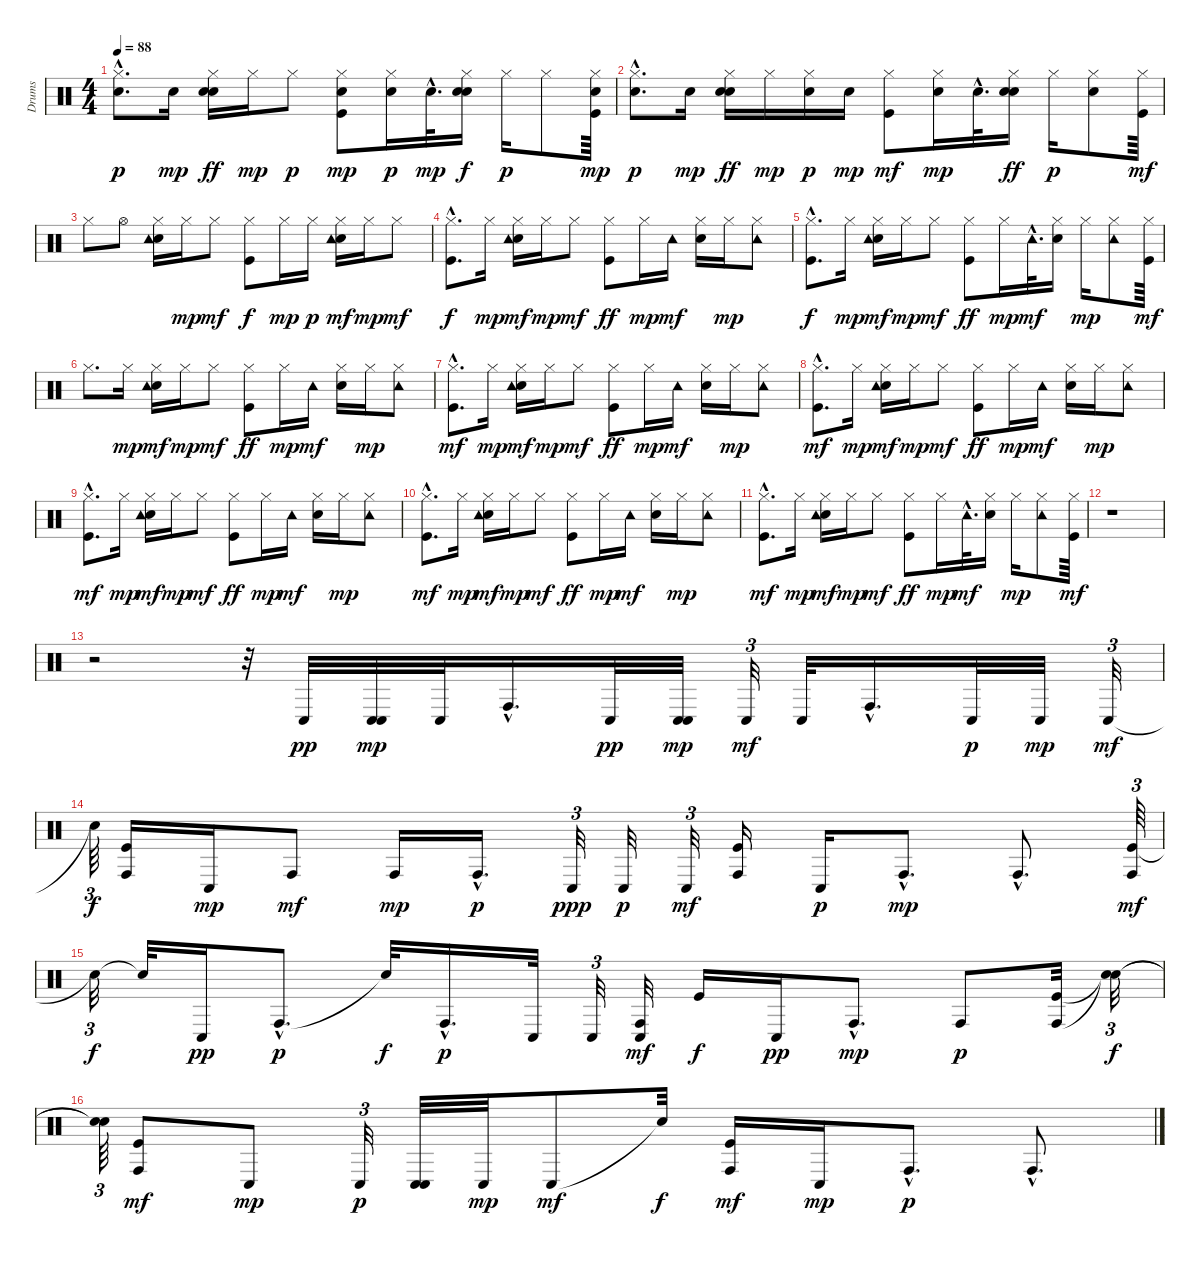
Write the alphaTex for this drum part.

\track ("Drums" "Drums") {instrument percussion}
\staff {score}
\articulation defaults
\ts (4 4)
\tempo 88
\clef neutral
\ks c
("Hi-Hat (closed)" "Snare (hit) 2"{hac}).8{d dy p} "Snare (hit) 2".16{dy mp} ("Electric Snare (hit)" "Hi-Hat (closed)" "Hand Clap (hit)").16{dy ff} "Hi-Hat (closed)".16{dy mp} "Hi-Hat (closed)".8{dy p} ("Kick (hit)" "Hi-Hat (closed)" "Snare (hit) 2").8{dy mp} ("Hi-Hat (closed)" "Snare (hit) 2").16{dy p} "Snare (hit) 2"{hac}.32{d dy mp} ("Electric Snare (hit)" "Hi-Hat (closed)" "Hand Clap (hit)").16{dy f} "Hi-Hat (closed)".16{dy p} "Hi-Hat (closed)".8 ("Kick (hit)" "Hi-Hat (closed)" "Snare (hit) 2").64{dy mp} |
("Hi-Hat (closed)" "Snare (hit) 2"{hac}).8{d dy p} "Snare (hit) 2".16{dy mp} ("Hand Clap (hit)" "Electric Snare (hit)" "Hi-Hat (closed)").16{dy ff} "Hi-Hat (closed)".16{dy mp} ("Hi-Hat (closed)" "Snare (hit) 2").16{dy p} "Snare (hit) 2".16{dy mp} ("Kick (hit)" "Hi-Hat (closed)").8{dy mf} ("Hi-Hat (closed)" "Snare (hit) 2").16{dy mp} "Snare (hit) 2"{hac}.32{d} ("Hand Clap (hit)" "Electric Snare (hit)" "Hi-Hat (closed)").16{dy ff} "Hi-Hat (closed)".16{dy p} ("Electric Snare (hit)" "Hi-Hat (closed)").8 ("Kick (hit)" "Hi-Hat (closed)").64{dy mf} |
"Hi-Hat (closed)".8 "Hi-Hat (open)".8 ("Electric Snare (hit)" "Hi-Hat (closed)" "Tambourine (hit)").16 "Hi-Hat (closed)".16{dy mp} "Hi-Hat (closed)".8{dy mf} ("Kick (hit)" "Hi-Hat (closed)").8{dy f} "Hi-Hat (closed)".16{dy mp} "Hi-Hat (closed)".16{dy p} ("Electric Snare (hit)" "Hi-Hat (closed)" "Tambourine (hit)").16{dy mf} "Hi-Hat (closed)".16{dy mp} "Hi-Hat (closed)".8{dy mf} |
("Kick (hit)"{hac} "Hi-Hat (closed)"{hac}).8{d dy f} "Hi-Hat (closed)".16{dy mp} ("Electric Snare (hit)" "Hi-Hat (closed)" "Tambourine (hit)").16{dy mf} "Hi-Hat (closed)".16{dy mp} "Hi-Hat (closed)".8{dy mf} ("Kick (hit)" "Hi-Hat (closed)").8{dy ff} "Hi-Hat (closed)".16{dy mp} "Tambourine (hit)".16{dy mf} ("Electric Snare (hit)" "Hi-Hat (closed)").16 "Hi-Hat (closed)".16{dy mp} ("Hi-Hat (closed)" "Tambourine (hit)").8 |
("Kick (hit)" "Hi-Hat (closed)"{hac}).8{d dy f} "Hi-Hat (closed)".16{dy mp} ("Electric Snare (hit)" "Hi-Hat (closed)" "Tambourine (hit)").16{dy mf} "Hi-Hat (closed)".16{dy mp} "Hi-Hat (closed)".8{dy mf} ("Kick (hit)" "Hi-Hat (closed)").8{dy ff} "Hi-Hat (closed)".16{dy mp} "Tambourine (hit)"{hac}.32{d dy mf} ("Electric Snare (hit)" "Hi-Hat (closed)").16 "Hi-Hat (closed)".16{dy mp} ("Hi-Hat (closed)" "Tambourine (hit)").8 ("Kick (hit)" "Hi-Hat (closed)").64{dy mf} |
"Hi-Hat (closed)".8{d} "Hi-Hat (closed)".16{dy mp} ("Electric Snare (hit)" "Hi-Hat (closed)" "Tambourine (hit)").16{dy mf} "Hi-Hat (closed)".16{dy mp} "Hi-Hat (closed)".8{dy mf} ("Kick (hit)" "Hi-Hat (closed)").8{dy ff} "Hi-Hat (closed)".16{dy mp} "Tambourine (hit)".16{dy mf} ("Electric Snare (hit)" "Hi-Hat (closed)").16 "Hi-Hat (closed)".16{dy mp} ("Hi-Hat (closed)" "Tambourine (hit)").8 |
("Hi-Hat (closed)" "Kick (hit)"{hac}).8{d dy mf} "Hi-Hat (closed)".16{dy mp} ("Electric Snare (hit)" "Hi-Hat (closed)" "Tambourine (hit)").16{dy mf} "Hi-Hat (closed)".16{dy mp} "Hi-Hat (closed)".8{dy mf} ("Kick (hit)" "Hi-Hat (closed)").8{dy ff} "Hi-Hat (closed)".16{dy mp} "Tambourine (hit)".16{dy mf} ("Electric Snare (hit)" "Hi-Hat (closed)").16 "Hi-Hat (closed)".16{dy mp} ("Hi-Hat (closed)" "Tambourine (hit)").8 |
("Hi-Hat (closed)" "Kick (hit)"{hac}).8{d dy mf} "Hi-Hat (closed)".16{dy mp} ("Electric Snare (hit)" "Hi-Hat (closed)" "Tambourine (hit)").16{dy mf} "Hi-Hat (closed)".16{dy mp} "Hi-Hat (closed)".8{dy mf} ("Kick (hit)" "Hi-Hat (closed)").8{dy ff} "Hi-Hat (closed)".16{dy mp} "Tambourine (hit)".16{dy mf} ("Electric Snare (hit)" "Hi-Hat (closed)").16 "Hi-Hat (closed)".16{dy mp} ("Hi-Hat (closed)" "Tambourine (hit)").8 |
("Hi-Hat (closed)" "Kick (hit)"{hac}).8{d dy mf} "Hi-Hat (closed)".16{dy mp} ("Electric Snare (hit)" "Hi-Hat (closed)" "Tambourine (hit)").16{dy mf} "Hi-Hat (closed)".16{dy mp} "Hi-Hat (closed)".8{dy mf} ("Kick (hit)" "Hi-Hat (closed)").8{dy ff} "Hi-Hat (closed)".16{dy mp} "Tambourine (hit)".16{dy mf} ("Electric Snare (hit)" "Hi-Hat (closed)").16 "Hi-Hat (closed)".16{dy mp} ("Hi-Hat (closed)" "Tambourine (hit)").8 |
("Hi-Hat (closed)" "Kick (hit)"{hac}).8{d dy mf} "Hi-Hat (closed)".16{dy mp} ("Electric Snare (hit)" "Hi-Hat (closed)" "Tambourine (hit)").16{dy mf} "Hi-Hat (closed)".16{dy mp} "Hi-Hat (closed)".8{dy mf} ("Kick (hit)" "Hi-Hat (closed)").8{dy ff} "Hi-Hat (closed)".16{dy mp} "Tambourine (hit)".16{dy mf} ("Electric Snare (hit)" "Hi-Hat (closed)").16 "Hi-Hat (closed)".16{dy mp} ("Hi-Hat (closed)" "Tambourine (hit)").8 |
("Hi-Hat (closed)" "Kick (hit)"{hac}).8{d dy mf} "Hi-Hat (closed)".16{dy mp} ("Electric Snare (hit)" "Hi-Hat (closed)" "Tambourine (hit)").16{dy mf} "Hi-Hat (closed)".16{dy mp} "Hi-Hat (closed)".8{dy mf} ("Kick (hit)" "Hi-Hat (closed)").8{dy ff} "Hi-Hat (closed)".16{dy mp} "Tambourine (hit)"{hac}.32{d dy mf} ("Electric Snare (hit)" "Hi-Hat (closed)").16 "Hi-Hat (closed)".16{dy mp} ("Hi-Hat (closed)" "Tambourine (hit)").8 ("Kick (hit)" "Hi-Hat (closed)").64{dy mf} |
r.1 |
r.2 r.32{tu (3 2)} "Conga low (hit)".32{dy pp} ("Conga low (hit)" "Conga low (hit)").32{dy mp} "Conga low (hit)".32 "Conga high (hit)"{hac}.16{d} "Conga low (hit)".32{dy pp} ("Conga low (hit)" "Conga low (hit)").32{dy mp} "Conga low (hit)".32{tu (3 2) dy mf} "Conga low (hit)".32 "Conga high (hit)"{hac}.16{d} "Conga low (hit)".32{dy p} "Conga low (hit)".32{dy mp} "Conga low (hit)".32{tu (3 2) dy mf} |
"Snare (hit)"{t}.64{tu (3 2) dy f} ("Kick (hit)" "Conga high (hit)").16 "Conga low (hit)".16{dy mp} "Conga high (hit)".8{dy mf} "Conga high (hit)".16{dy mp} "Conga high (hit)"{hac}.16{d dy p} "Conga low (hit)".32{tu (3 2) dy ppp} "Conga low (hit)".32{dy p} "Conga low (hit)".32{tu (3 2) dy mf} ("Kick (hit)" "Conga high (hit)").16 "Conga low (hit)".16{dy p} "Conga high (hit)"{hac}.8{d dy mp} "Conga high (hit)"{hac}.8{d} ("Kick (hit)" "Conga high (hit)").64{tu (3 2) dy mf} |
"Snare (hit)"{t}.32{tu (3 2) dy f} "Snare (hit)"{t}.32 "Conga low (hit)".16{dy pp} "Conga high (hit)"{hac}.8{d dy p} "Snare (hit)"{t}.32{dy f} "Conga high (hit)"{hac}.16{d dy p} "Conga low (hit)".32 "Conga low (hit)".32{tu (3 2)} ("Conga low (hit)" "Conga high (hit)").32{dy mf} "Kick (hit)".16{dy f} "Conga low (hit)".16{dy pp} "Conga high (hit)"{hac}.8{d dy mp} "Conga high (hit)".8{dy p} ("Kick (hit)" "Conga high (hit)").32 ("Snare (hit)"{t} "Snare (hit)"{t}).32{tu (3 2) dy f} |
("Snare (hit)"{t} "Snare (hit)"{t}).64{tu (3 2)} ("Kick (hit)" "Conga high (hit)").8{dy mf} "Conga low (hit)".8{dy mp} "Conga low (hit)".32{tu (3 2) dy p} ("Conga low (hit)" "Conga low (hit)").32 "Conga low (hit)".32{dy mp} "Conga low (hit)".8{dy mf} "Snare (hit)"{t}.32{dy f} ("Kick (hit)" "Conga high (hit)").16{dy mf} "Conga low (hit)".16{dy mp} "Conga high (hit)"{hac}.8{d dy p} "Conga high (hit)"{hac}.8{d}
